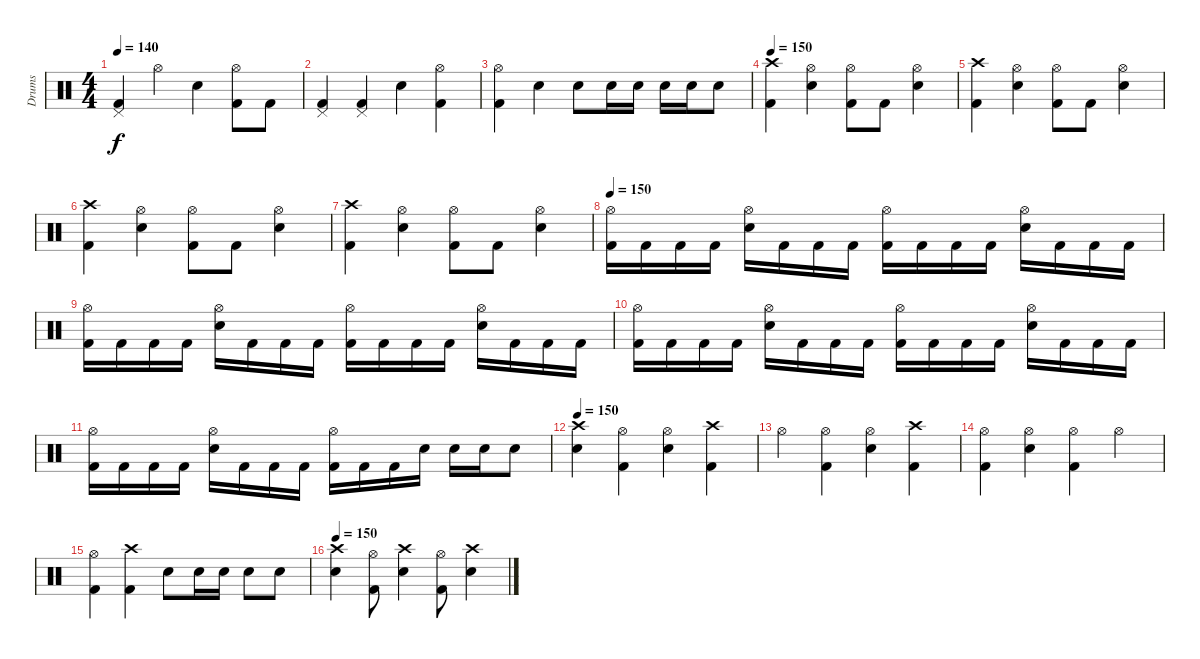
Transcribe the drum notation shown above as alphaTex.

\track ("Drums" "Drums") {instrument percussion}
\staff {score}
\articulation defaults
\ts (4 4)
\tempo 140
\clef neutral
\ks c
("Pedal Hi-Hat (hit)" "Kick (hit) 2").4{dy f} "Hi-Hat (open)".4 "Electric Snare (hit)".4 ("Hi-Hat (open)" "Kick (hit) 2").8 "Kick (hit) 2".8 |
("Pedal Hi-Hat (hit)" "Kick (hit) 2").4 ("Pedal Hi-Hat (hit)" "Kick (hit) 2").4 "Electric Snare (hit)".4 ("Hi-Hat (open)" "Kick (hit) 2").4 |
("Hi-Hat (open)" "Kick (hit) 2").4 "Electric Snare (hit)".4 "Electric Snare (hit)".8 "Electric Snare (hit)".16 "Electric Snare (hit)".16 "Electric Snare (hit)".16 "Electric Snare (hit)".16 "Electric Snare (hit)".8 |
\tempo 150
("Crash high (hit)" "Kick (hit) 2").4 ("Hi-Hat (open)" "Electric Snare (hit)").4 ("Hi-Hat (open)" "Kick (hit) 2").8 "Kick (hit) 2".8 ("Hi-Hat (open)" "Electric Snare (hit)").4 |
("Crash high (hit)" "Kick (hit) 2").4 ("Hi-Hat (open)" "Electric Snare (hit)").4 ("Hi-Hat (open)" "Kick (hit) 2").8 "Kick (hit) 2".8 ("Hi-Hat (open)" "Electric Snare (hit)").4 |
("Crash high (hit)" "Kick (hit) 2").4 ("Hi-Hat (open)" "Electric Snare (hit)").4 ("Hi-Hat (open)" "Kick (hit) 2").8 "Kick (hit) 2".8 ("Hi-Hat (open)" "Electric Snare (hit)").4 |
("Crash high (hit)" "Kick (hit) 2").4 ("Hi-Hat (open)" "Electric Snare (hit)").4 ("Hi-Hat (open)" "Kick (hit) 2").8 "Kick (hit) 2".8 ("Hi-Hat (open)" "Electric Snare (hit)").4 |
\tempo 150
("Hi-Hat (open)" "Kick (hit) 2").16 "Kick (hit) 2".16 "Kick (hit) 2".16 "Kick (hit) 2".16 ("Hi-Hat (open)" "Electric Snare (hit)").16 "Kick (hit) 2".16 "Kick (hit) 2".16 "Kick (hit) 2".16 ("Hi-Hat (open)" "Kick (hit) 2").16 "Kick (hit) 2".16 "Kick (hit) 2".16 "Kick (hit) 2".16 ("Hi-Hat (open)" "Electric Snare (hit)").16 "Kick (hit) 2".16 "Kick (hit) 2".16 "Kick (hit) 2".16 |
("Hi-Hat (open)" "Kick (hit) 2").16 "Kick (hit) 2".16 "Kick (hit) 2".16 "Kick (hit) 2".16 ("Hi-Hat (open)" "Electric Snare (hit)").16 "Kick (hit) 2".16 "Kick (hit) 2".16 "Kick (hit) 2".16 ("Hi-Hat (open)" "Kick (hit) 2").16 "Kick (hit) 2".16 "Kick (hit) 2".16 "Kick (hit) 2".16 ("Hi-Hat (open)" "Electric Snare (hit)").16 "Kick (hit) 2".16 "Kick (hit) 2".16 "Kick (hit) 2".16 |
("Hi-Hat (open)" "Kick (hit) 2").16 "Kick (hit) 2".16 "Kick (hit) 2".16 "Kick (hit) 2".16 ("Hi-Hat (open)" "Electric Snare (hit)").16 "Kick (hit) 2".16 "Kick (hit) 2".16 "Kick (hit) 2".16 ("Hi-Hat (open)" "Kick (hit) 2").16 "Kick (hit) 2".16 "Kick (hit) 2".16 "Kick (hit) 2".16 ("Hi-Hat (open)" "Electric Snare (hit)").16 "Kick (hit) 2".16 "Kick (hit) 2".16 "Kick (hit) 2".16 |
("Hi-Hat (open)" "Kick (hit) 2").16 "Kick (hit) 2".16 "Kick (hit) 2".16 "Kick (hit) 2".16 ("Hi-Hat (open)" "Electric Snare (hit)").16 "Kick (hit) 2".16 "Kick (hit) 2".16 "Kick (hit) 2".16 ("Hi-Hat (open)" "Kick (hit) 2").16 "Kick (hit) 2".16 "Kick (hit) 2".16 "Electric Snare (hit)".16 "Electric Snare (hit)".16 "Electric Snare (hit)".16 "Electric Snare (hit)".8 |
\tempo 150
("Crash high (hit)" "Electric Snare (hit)").4 ("Hi-Hat (open)" "Kick (hit) 2").4 ("Hi-Hat (open)" "Electric Snare (hit)").4 ("Crash high (hit)" "Kick (hit) 2").4 |
"Hi-Hat (open)".4 ("Hi-Hat (open)" "Kick (hit) 2").4 ("Hi-Hat (open)" "Electric Snare (hit)").4 ("Crash high (hit)" "Kick (hit) 2").4 |
("Hi-Hat (open)" "Kick (hit) 2").4 ("Hi-Hat (open)" "Electric Snare (hit)").4 ("Hi-Hat (open)" "Kick (hit) 2").4 "Hi-Hat (open)".4 |
("Hi-Hat (open)" "Kick (hit) 2").4 ("Crash high (hit)" "Kick (hit) 2").4 "Electric Snare (hit)".8 "Electric Snare (hit)".16 "Electric Snare (hit)".16 "Electric Snare (hit)".8 "Electric Snare (hit)".8 |
\tempo 150
("Crash high (hit)" "Electric Snare (hit)").4 ("Hi-Hat (open)" "Kick (hit) 2").8 ("Crash high (hit)" "Electric Snare (hit)").4 ("Hi-Hat (open)" "Kick (hit) 2").8 ("Crash high (hit)" "Electric Snare (hit)").4
